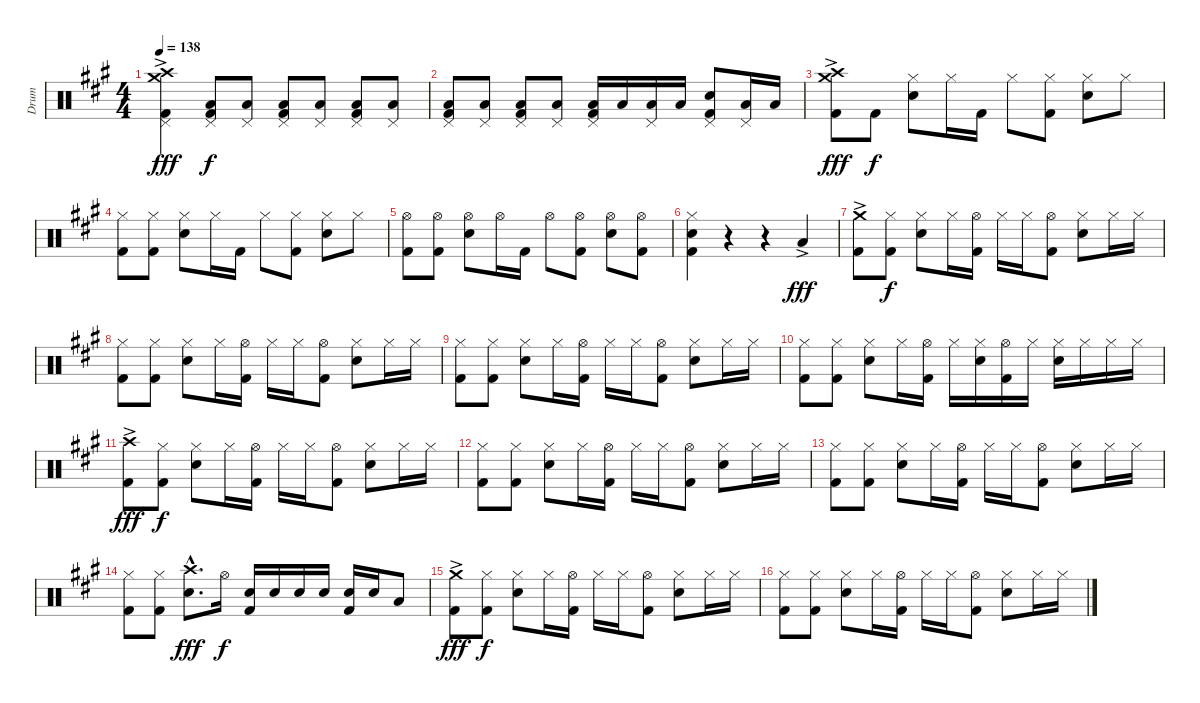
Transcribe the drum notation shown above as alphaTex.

\track ("Drum" "Drum") {instrument percussion}
\staff {score}
\articulation defaults
\ts (4 4)
\tempo 138
\clef neutral
\ks a
("Crash medium (hit)"{ac} "Crash high (hit)"{ac} "Pedal Hi-Hat (hit)" "Kick (hit) 2").4{dy fff} ("Low Floor Tom (hit)" "Pedal Hi-Hat (hit)" "Kick (hit) 2").8{dy f} ("Low Floor Tom (hit)" "Pedal Hi-Hat (hit)").8 ("Low Floor Tom (hit)" "Pedal Hi-Hat (hit)" "Kick (hit) 2").8 ("Low Floor Tom (hit)" "Pedal Hi-Hat (hit)").8 ("Low Floor Tom (hit)" "Pedal Hi-Hat (hit)" "Kick (hit) 2").8 ("Low Floor Tom (hit)" "Pedal Hi-Hat (hit)").8 |
("Low Floor Tom (hit)" "Pedal Hi-Hat (hit)" "Kick (hit) 2").8 ("Low Floor Tom (hit)" "Pedal Hi-Hat (hit)").8 ("Low Floor Tom (hit)" "Pedal Hi-Hat (hit)" "Kick (hit) 2").8 ("Low Floor Tom (hit)" "Pedal Hi-Hat (hit)").8 ("Low Floor Tom (hit)" "Pedal Hi-Hat (hit)" "Kick (hit) 2").16 "Low Floor Tom (hit)".16 ("Low Floor Tom (hit)" "Pedal Hi-Hat (hit)").16 "Low Floor Tom (hit)".16 ("Pedal Hi-Hat (hit)" "Snare (hit) 2" "Kick (hit) 2").8 ("Low Floor Tom (hit)" "Pedal Hi-Hat (hit)").16 "Low Floor Tom (hit)".16 |
("Crash medium (hit)"{ac} "Crash high (hit)"{ac} "Kick (hit) 2").8{dy fff} "Kick (hit) 2".8{dy f} ("Hi-Hat (closed)" "Snare (hit) 2").8 "Hi-Hat (closed)".16 "Kick (hit) 2".16 "Hi-Hat (closed)".8 ("Hi-Hat (closed)" "Kick (hit) 2").8 ("Hi-Hat (closed)" "Snare (hit) 2").8 "Hi-Hat (closed)".8 |
("Hi-Hat (closed)" "Kick (hit) 2").8 ("Hi-Hat (closed)" "Kick (hit) 2").8 ("Hi-Hat (closed)" "Snare (hit) 2").8 "Hi-Hat (closed)".16 "Kick (hit) 2".16 "Hi-Hat (closed)".8 ("Hi-Hat (closed)" "Kick (hit) 2").8 ("Hi-Hat (closed)" "Snare (hit) 2").8 "Hi-Hat (closed)".8 |
("Hi-Hat (open)" "Kick (hit) 2").8 ("Hi-Hat (open)" "Kick (hit) 2").8 ("Hi-Hat (open)" "Snare (hit) 2").8 "Hi-Hat (open)".16 "Kick (hit) 2".16 "Hi-Hat (open)".8 ("Hi-Hat (open)" "Kick (hit) 2").8 ("Hi-Hat (open)" "Snare (hit) 2").8 ("Hi-Hat (open)" "Kick (hit) 2").8 |
("Hi-Hat (closed)" "Snare (hit) 2" "Kick (hit) 2").4 r.4 r.4 "Low Floor Tom (hit)"{ac}.4{dy fff} |
("Crash medium (hit)"{ac} "Kick (hit) 2").8 ("Hi-Hat (closed)" "Kick (hit) 2").8{dy f} ("Hi-Hat (closed)" "Snare (hit) 2").8 "Hi-Hat (closed)".16 ("Hi-Hat (open)" "Kick (hit) 2").16 "Hi-Hat (closed)".16 "Hi-Hat (closed)".16 ("Hi-Hat (open)" "Kick (hit) 2").8 ("Hi-Hat (closed)" "Snare (hit) 2").8 "Hi-Hat (closed)".16 "Hi-Hat (closed)".16 |
("Hi-Hat (closed)" "Kick (hit) 2").8 ("Hi-Hat (closed)" "Kick (hit) 2").8 ("Hi-Hat (closed)" "Snare (hit) 2").8 "Hi-Hat (closed)".16 ("Hi-Hat (open)" "Kick (hit) 2").16 "Hi-Hat (closed)".16 "Hi-Hat (closed)".16 ("Hi-Hat (open)" "Kick (hit) 2").8 ("Hi-Hat (closed)" "Snare (hit) 2").8 "Hi-Hat (closed)".16 "Hi-Hat (closed)".16 |
("Hi-Hat (closed)" "Kick (hit) 2").8 ("Hi-Hat (closed)" "Kick (hit) 2").8 ("Hi-Hat (closed)" "Snare (hit) 2").8 "Hi-Hat (closed)".16 ("Hi-Hat (open)" "Kick (hit) 2").16 "Hi-Hat (closed)".16 "Hi-Hat (closed)".16 ("Hi-Hat (open)" "Kick (hit) 2").8 ("Hi-Hat (closed)" "Snare (hit) 2").8 "Hi-Hat (closed)".16 "Hi-Hat (closed)".16 |
("Hi-Hat (closed)" "Kick (hit) 2").8 ("Hi-Hat (closed)" "Kick (hit) 2").8 ("Hi-Hat (closed)" "Snare (hit) 2").8 "Hi-Hat (closed)".16 ("Hi-Hat (open)" "Kick (hit) 2").16 "Hi-Hat (closed)".16 ("Hi-Hat (closed)" "Snare (hit) 2").16 ("Hi-Hat (open)" "Kick (hit) 2").16 "Hi-Hat (closed)".16 ("Hi-Hat (closed)" "Snare (hit) 2").16 "Hi-Hat (closed)".16 "Hi-Hat (closed)".16 "Hi-Hat (closed)".16 |
("Crash high (hit)"{ac} "Kick (hit) 2").8{dy fff} ("Hi-Hat (closed)" "Kick (hit) 2").8{dy f} ("Hi-Hat (closed)" "Snare (hit) 2").8 "Hi-Hat (closed)".16 ("Hi-Hat (open)" "Kick (hit) 2").16 "Hi-Hat (closed)".16 "Hi-Hat (closed)".16 ("Hi-Hat (open)" "Kick (hit) 2").8 ("Hi-Hat (closed)" "Snare (hit) 2").8 "Hi-Hat (closed)".16 "Hi-Hat (closed)".16 |
("Hi-Hat (closed)" "Kick (hit) 2").8 ("Hi-Hat (closed)" "Kick (hit) 2").8 ("Hi-Hat (closed)" "Snare (hit) 2").8 "Hi-Hat (closed)".16 ("Hi-Hat (open)" "Kick (hit) 2").16 "Hi-Hat (closed)".16 "Hi-Hat (closed)".16 ("Hi-Hat (open)" "Kick (hit) 2").8 ("Hi-Hat (closed)" "Snare (hit) 2").8 "Hi-Hat (closed)".16 "Hi-Hat (closed)".16 |
("Hi-Hat (closed)" "Kick (hit) 2").8 ("Hi-Hat (closed)" "Kick (hit) 2").8 ("Hi-Hat (closed)" "Snare (hit) 2").8 "Hi-Hat (closed)".16 ("Hi-Hat (open)" "Kick (hit) 2").16 "Hi-Hat (closed)".16 "Hi-Hat (closed)".16 ("Hi-Hat (open)" "Kick (hit) 2").8 ("Hi-Hat (closed)" "Snare (hit) 2").8 "Hi-Hat (closed)".16 "Hi-Hat (closed)".16 |
("Hi-Hat (closed)" "Kick (hit) 2").8 ("Hi-Hat (closed)" "Kick (hit) 2").8 ("Crash high (hit)"{hac} "Snare (hit) 2"{hac}).8{d dy fff} "Hi-Hat (open)".16{dy f} ("Snare (hit) 2" "Kick (hit) 2").16 "Snare (hit) 2".16 "Snare (hit) 2".16 "Snare (hit) 2".16 ("Snare (hit) 2" "Kick (hit) 2").16 "Snare (hit) 2".16 "Low Floor Tom (hit)".8 |
("Crash medium (hit)"{ac} "Kick (hit) 2").8{dy fff} ("Hi-Hat (closed)" "Kick (hit) 2").8{dy f} ("Hi-Hat (closed)" "Snare (hit) 2").8 "Hi-Hat (closed)".16 ("Hi-Hat (open)" "Kick (hit) 2").16 "Hi-Hat (closed)".16 "Hi-Hat (closed)".16 ("Hi-Hat (open)" "Kick (hit) 2").8 ("Hi-Hat (closed)" "Snare (hit) 2").8 "Hi-Hat (closed)".16 "Hi-Hat (closed)".16 |
("Hi-Hat (closed)" "Kick (hit) 2").8 ("Hi-Hat (closed)" "Kick (hit) 2").8 ("Hi-Hat (closed)" "Snare (hit) 2").8 "Hi-Hat (closed)".16 ("Hi-Hat (open)" "Kick (hit) 2").16 "Hi-Hat (closed)".16 "Hi-Hat (closed)".16 ("Hi-Hat (open)" "Kick (hit) 2").8 ("Hi-Hat (closed)" "Snare (hit) 2").8 "Hi-Hat (closed)".16 "Hi-Hat (closed)".16
